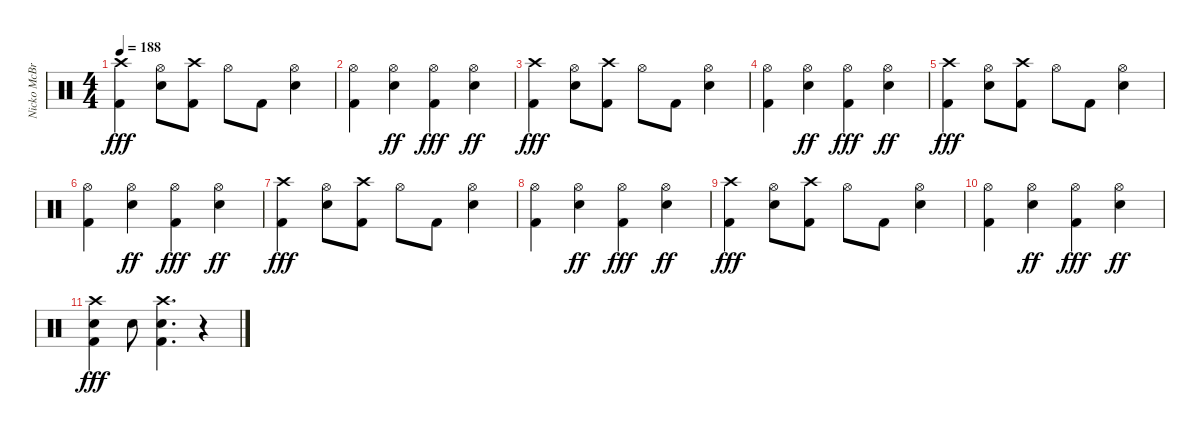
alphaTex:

\track ("Nicko McBrain" "Nicko McBr") {instrument percussion}
\staff {score}
\articulation defaults
\ts (4 4)
\tempo 188
\clef neutral
\ks c
("Crash high (hit)" "Kick (hit) 2").4{dy fff} ("Hi-Hat (open)" "Electric Snare (hit)").8 ("Crash high (hit)" "Kick (hit) 2").8 "Hi-Hat (open)".8 "Kick (hit) 2".8 ("Hi-Hat (open)" "Electric Snare (hit)").4 |
("Hi-Hat (open)" "Kick (hit) 2").4 ("Hi-Hat (open)" "Electric Snare (hit)").4{dy ff} ("Hi-Hat (open)" "Kick (hit) 2").4{dy fff} ("Hi-Hat (open)" "Electric Snare (hit)").4{dy ff} |
("Crash high (hit)" "Kick (hit) 2").4{dy fff} ("Hi-Hat (open)" "Electric Snare (hit)").8 ("Crash high (hit)" "Kick (hit) 2").8 "Hi-Hat (open)".8 "Kick (hit) 2".8 ("Hi-Hat (open)" "Electric Snare (hit)").4 |
("Hi-Hat (open)" "Kick (hit) 2").4 ("Hi-Hat (open)" "Electric Snare (hit)").4{dy ff} ("Hi-Hat (open)" "Kick (hit) 2").4{dy fff} ("Hi-Hat (open)" "Electric Snare (hit)").4{dy ff} |
("Crash high (hit)" "Kick (hit) 2").4{dy fff} ("Hi-Hat (open)" "Electric Snare (hit)").8 ("Crash high (hit)" "Kick (hit) 2").8 "Hi-Hat (open)".8 "Kick (hit) 2".8 ("Hi-Hat (open)" "Electric Snare (hit)").4 |
("Hi-Hat (open)" "Kick (hit) 2").4 ("Hi-Hat (open)" "Electric Snare (hit)").4{dy ff} ("Hi-Hat (open)" "Kick (hit) 2").4{dy fff} ("Hi-Hat (open)" "Electric Snare (hit)").4{dy ff} |
("Crash high (hit)" "Kick (hit) 2").4{dy fff} ("Hi-Hat (open)" "Electric Snare (hit)").8 ("Crash high (hit)" "Kick (hit) 2").8 "Hi-Hat (open)".8 "Kick (hit) 2".8 ("Hi-Hat (open)" "Electric Snare (hit)").4 |
("Hi-Hat (open)" "Kick (hit) 2").4 ("Hi-Hat (open)" "Electric Snare (hit)").4{dy ff} ("Hi-Hat (open)" "Kick (hit) 2").4{dy fff} ("Hi-Hat (open)" "Electric Snare (hit)").4{dy ff} |
("Crash high (hit)" "Kick (hit) 2").4{dy fff} ("Hi-Hat (open)" "Electric Snare (hit)").8 ("Crash high (hit)" "Kick (hit) 2").8 "Hi-Hat (open)".8 "Kick (hit) 2".8 ("Hi-Hat (open)" "Electric Snare (hit)").4 |
("Hi-Hat (open)" "Kick (hit) 2").4 ("Hi-Hat (open)" "Electric Snare (hit)").4{dy ff} ("Hi-Hat (open)" "Kick (hit) 2").4{dy fff} ("Hi-Hat (open)" "Electric Snare (hit)").4{dy ff} |
("Crash high (hit)" "Electric Snare (hit)" "Kick (hit) 2").4{dy fff} "Electric Snare (hit)".8 ("Crash high (hit)" "Electric Snare (hit)" "Kick (hit) 2").4{d} r.4
